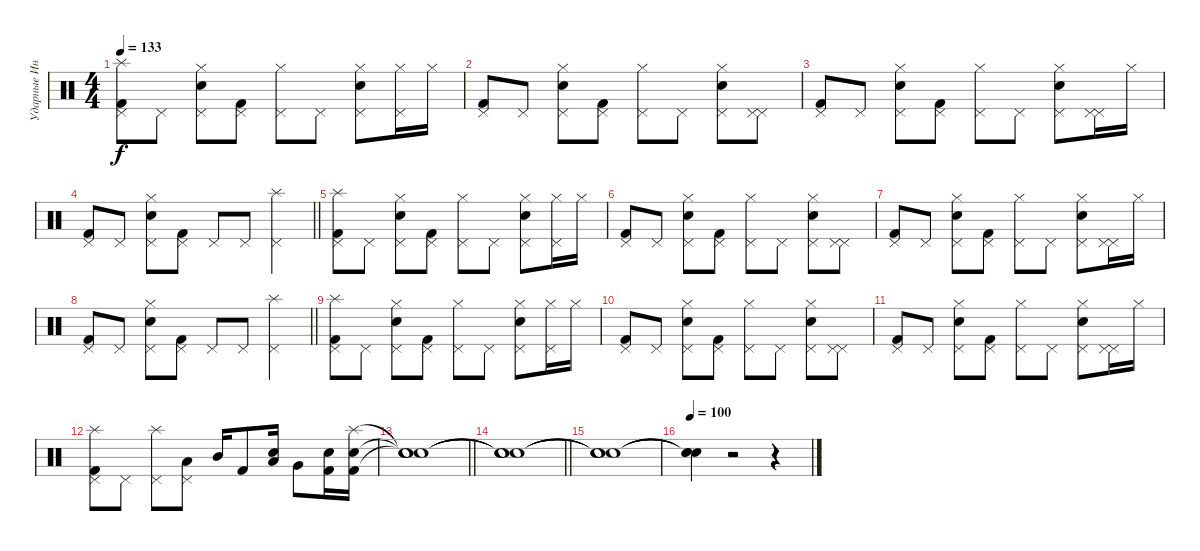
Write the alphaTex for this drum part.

\track ("Ударные Инструменты" "Ударные Ин") {instrument percussion}
\staff {score}
\articulation defaults
\ts (4 4)
\tempo 133
\clef neutral
\ks c
("Splash (hit)" "Pedal Hi-Hat (hit)" "Kick (hit) 2").8{dy f} "Pedal Hi-Hat (hit)".8 ("Electric Snare (hit)" "Pedal Hi-Hat (hit)" "Hi-Hat (closed)").8 ("Pedal Hi-Hat (hit)" "Kick (hit) 2").8 ("Hi-Hat (closed)" "Pedal Hi-Hat (hit)").8 "Pedal Hi-Hat (hit)".8 ("Electric Snare (hit)" "Pedal Hi-Hat (hit)" "Hi-Hat (closed)").8 ("Hi-Hat (closed)" "Pedal Hi-Hat (hit)").16 "Hi-Hat (closed)".16 |
("Pedal Hi-Hat (hit)" "Kick (hit) 2").8 "Pedal Hi-Hat (hit)".8 ("Electric Snare (hit)" "Pedal Hi-Hat (hit)" "Hi-Hat (closed)").8 ("Pedal Hi-Hat (hit)" "Kick (hit) 2").8 ("Hi-Hat (closed)" "Pedal Hi-Hat (hit)").8 "Pedal Hi-Hat (hit)".8 ("Electric Snare (hit)" "Pedal Hi-Hat (hit)" "Hi-Hat (closed)").8 ("Pedal Hi-Hat (hit)" "Pedal Hi-Hat (hit)").8 |
("Pedal Hi-Hat (hit)" "Kick (hit) 2").8 "Pedal Hi-Hat (hit)".8 ("Electric Snare (hit)" "Pedal Hi-Hat (hit)" "Hi-Hat (closed)").8 ("Pedal Hi-Hat (hit)" "Kick (hit) 2").8 ("Hi-Hat (closed)" "Pedal Hi-Hat (hit)").8 "Pedal Hi-Hat (hit)".8 ("Electric Snare (hit)" "Pedal Hi-Hat (hit)" "Hi-Hat (closed)").8 ("Pedal Hi-Hat (hit)" "Pedal Hi-Hat (hit)").16 "Hi-Hat (closed)".16 |
\barLineRight lightlight
("Pedal Hi-Hat (hit)" "Kick (hit) 2").8 "Pedal Hi-Hat (hit)".8 ("Electric Snare (hit)" "Pedal Hi-Hat (hit)" "Hi-Hat (closed)").8 ("Pedal Hi-Hat (hit)" "Kick (hit) 2").8 "Pedal Hi-Hat (hit)".8 "Pedal Hi-Hat (hit)".8 ("Splash (hit)" "Pedal Hi-Hat (hit)").4 |
("Splash (hit)" "Pedal Hi-Hat (hit)" "Kick (hit) 2").8 "Pedal Hi-Hat (hit)".8 ("Electric Snare (hit)" "Pedal Hi-Hat (hit)" "Hi-Hat (closed)").8 ("Pedal Hi-Hat (hit)" "Kick (hit) 2").8 ("Hi-Hat (closed)" "Pedal Hi-Hat (hit)").8 "Pedal Hi-Hat (hit)".8 ("Electric Snare (hit)" "Pedal Hi-Hat (hit)" "Hi-Hat (closed)").8 ("Hi-Hat (closed)" "Pedal Hi-Hat (hit)").16 "Hi-Hat (closed)".16 |
("Pedal Hi-Hat (hit)" "Kick (hit) 2").8 "Pedal Hi-Hat (hit)".8 ("Electric Snare (hit)" "Pedal Hi-Hat (hit)" "Hi-Hat (closed)").8 ("Pedal Hi-Hat (hit)" "Kick (hit) 2").8 ("Hi-Hat (closed)" "Pedal Hi-Hat (hit)").8 "Pedal Hi-Hat (hit)".8 ("Electric Snare (hit)" "Pedal Hi-Hat (hit)" "Hi-Hat (closed)").8 ("Pedal Hi-Hat (hit)" "Pedal Hi-Hat (hit)").8 |
("Pedal Hi-Hat (hit)" "Kick (hit) 2").8 "Pedal Hi-Hat (hit)".8 ("Electric Snare (hit)" "Pedal Hi-Hat (hit)" "Hi-Hat (closed)").8 ("Pedal Hi-Hat (hit)" "Kick (hit) 2").8 ("Hi-Hat (closed)" "Pedal Hi-Hat (hit)").8 "Pedal Hi-Hat (hit)".8 ("Electric Snare (hit)" "Pedal Hi-Hat (hit)" "Hi-Hat (closed)").8 ("Pedal Hi-Hat (hit)" "Pedal Hi-Hat (hit)").16 "Hi-Hat (closed)".16 |
\barLineRight lightlight
("Pedal Hi-Hat (hit)" "Kick (hit) 2").8 "Pedal Hi-Hat (hit)".8 ("Electric Snare (hit)" "Pedal Hi-Hat (hit)" "Hi-Hat (closed)").8 ("Pedal Hi-Hat (hit)" "Kick (hit) 2").8 "Pedal Hi-Hat (hit)".8 "Pedal Hi-Hat (hit)".8 ("Splash (hit)" "Pedal Hi-Hat (hit)").4 |
("Splash (hit)" "Pedal Hi-Hat (hit)" "Kick (hit) 2").8 "Pedal Hi-Hat (hit)".8 ("Electric Snare (hit)" "Pedal Hi-Hat (hit)" "Hi-Hat (closed)").8 ("Pedal Hi-Hat (hit)" "Kick (hit) 2").8 ("Hi-Hat (closed)" "Pedal Hi-Hat (hit)").8 "Pedal Hi-Hat (hit)".8 ("Electric Snare (hit)" "Pedal Hi-Hat (hit)" "Hi-Hat (closed)").8 ("Hi-Hat (closed)" "Pedal Hi-Hat (hit)").16 "Hi-Hat (closed)".16 |
("Pedal Hi-Hat (hit)" "Kick (hit) 2").8 "Pedal Hi-Hat (hit)".8 ("Electric Snare (hit)" "Pedal Hi-Hat (hit)" "Hi-Hat (closed)").8 ("Pedal Hi-Hat (hit)" "Kick (hit) 2").8 ("Hi-Hat (closed)" "Pedal Hi-Hat (hit)").8 "Pedal Hi-Hat (hit)".8 ("Electric Snare (hit)" "Pedal Hi-Hat (hit)" "Hi-Hat (closed)").8 ("Pedal Hi-Hat (hit)" "Pedal Hi-Hat (hit)").8 |
("Pedal Hi-Hat (hit)" "Kick (hit) 2").8 "Pedal Hi-Hat (hit)".8 ("Electric Snare (hit)" "Pedal Hi-Hat (hit)" "Hi-Hat (closed)").8 ("Pedal Hi-Hat (hit)" "Kick (hit) 2").8 ("Hi-Hat (closed)" "Pedal Hi-Hat (hit)").8 "Pedal Hi-Hat (hit)".8 ("Electric Snare (hit)" "Pedal Hi-Hat (hit)" "Hi-Hat (closed)").8 ("Pedal Hi-Hat (hit)" "Pedal Hi-Hat (hit)").16 "Hi-Hat (closed)".16 |
("Splash (hit)" "Pedal Hi-Hat (hit)" "Kick (hit) 2").8 "Pedal Hi-Hat (hit)".8 ("Splash (hit)" "Pedal Hi-Hat (hit)").8 ("Pedal Hi-Hat (hit)" "Low Tom (hit)").8 "Mid Tom (hit)".16 "Kick (hit) 2".8 ("Snare (hit) 2" "Low Floor Tom (hit)").16 "Very Low Tom (hit)".8 ("Snare (hit) 2" "Kick (hit) 2").16 ("Splash (hit)" "Electric Snare (hit)" "Kick (hit) 2").16 |
\barLineRight lightlight
("Snare (hit)"{t} "Snare (hit)"{t} "Snare (hit)"{t}).1 |
\barLineRight lightlight
("Snare (hit)"{t} "Snare (hit)"{t} "Snare (hit)"{t}).1 |
("Snare (hit)"{t} "Snare (hit)"{t} "Snare (hit)"{t}).1 |
\tempo 100
("Snare (hit)"{t} "Snare (hit)"{t} "Snare (hit)"{t}).4 r.2 r.4
